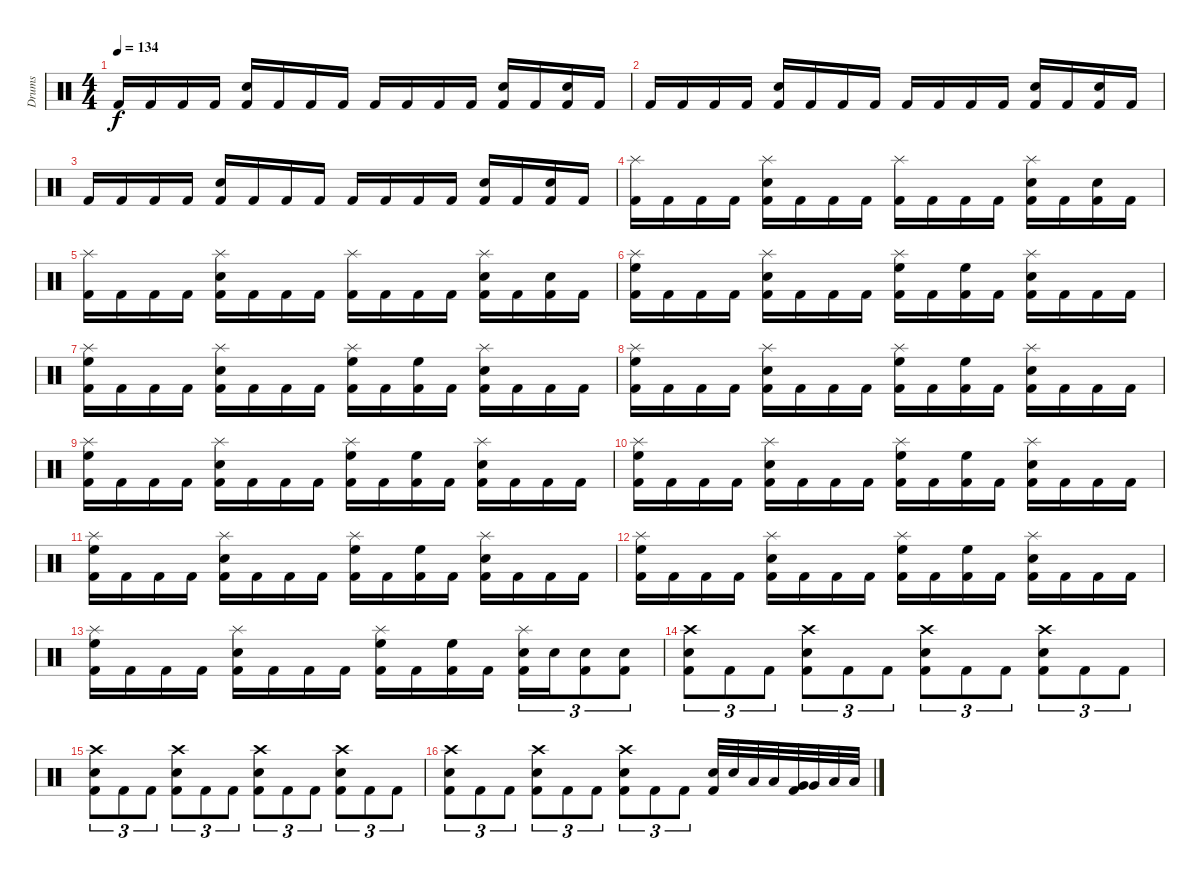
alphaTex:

\track ("Drums" "Drums") {instrument percussion}
\staff {score}
\articulation defaults
\ts (4 4)
\tempo 134
\clef neutral
\ks c "Kick (hit) 2".16{dy f} "Kick (hit) 2".16 "Kick (hit) 2".16 "Kick (hit) 2".16
("Kick (hit) 2" "Electric Snare (hit)").16 "Kick (hit) 2".16 "Kick (hit) 2".16 "Kick (hit) 2".16 "Kick (hit) 2".16 "Kick (hit) 2".16 "Kick (hit) 2".16 "Kick (hit) 2".16 ("Kick (hit) 2" "Electric Snare (hit)").16 "Kick (hit) 2".16 ("Kick (hit) 2" "Electric Snare (hit)").16 "Kick (hit) 2".16 |
"Kick (hit) 2".16 "Kick (hit) 2".16 "Kick (hit) 2".16 "Kick (hit) 2".16 ("Kick (hit) 2" "Electric Snare (hit)").16 "Kick (hit) 2".16 "Kick (hit) 2".16 "Kick (hit) 2".16 "Kick (hit) 2".16 "Kick (hit) 2".16 "Kick (hit) 2".16 "Kick (hit) 2".16 ("Kick (hit) 2" "Electric Snare (hit)").16 "Kick (hit) 2".16 ("Kick (hit) 2" "Electric Snare (hit)").16 "Kick (hit) 2".16 |
"Kick (hit) 2".16 "Kick (hit) 2".16 "Kick (hit) 2".16 "Kick (hit) 2".16 ("Kick (hit) 2" "Electric Snare (hit)").16 "Kick (hit) 2".16 "Kick (hit) 2".16 "Kick (hit) 2".16 "Kick (hit) 2".16 "Kick (hit) 2".16 "Kick (hit) 2".16 "Kick (hit) 2".16 ("Kick (hit) 2" "Electric Snare (hit)").16 "Kick (hit) 2".16 ("Kick (hit) 2" "Electric Snare (hit)").16 "Kick (hit) 2".16 |
("Kick (hit) 2" "Splash (hit)").16 "Kick (hit) 2".16 "Kick (hit) 2".16 "Kick (hit) 2".16 ("Kick (hit) 2" "Splash (hit)" "Electric Snare (hit)").16 "Kick (hit) 2".16 "Kick (hit) 2".16 "Kick (hit) 2".16 ("Kick (hit) 2" "Splash (hit)").16 "Kick (hit) 2".16 "Kick (hit) 2".16 "Kick (hit) 2".16 ("Kick (hit) 2" "Splash (hit)" "Electric Snare (hit)").16 "Kick (hit) 2".16 ("Kick (hit) 2" "Electric Snare (hit)").16 "Kick (hit) 2".16 |
("Kick (hit) 2" "Splash (hit)").16 "Kick (hit) 2".16 "Kick (hit) 2".16 "Kick (hit) 2".16 ("Kick (hit) 2" "Splash (hit)" "Electric Snare (hit)").16 "Kick (hit) 2".16 "Kick (hit) 2".16 "Kick (hit) 2".16 ("Kick (hit) 2" "Splash (hit)").16 "Kick (hit) 2".16 "Kick (hit) 2".16 "Kick (hit) 2".16 ("Kick (hit) 2" "Splash (hit)" "Electric Snare (hit)").16 "Kick (hit) 2".16 ("Kick (hit) 2" "Electric Snare (hit)").16 "Kick (hit) 2".16 |
("Kick (hit) 2" "Splash (hit)" "High Floor Tom (hit)").16 "Kick (hit) 2".16 "Kick (hit) 2".16 "Kick (hit) 2".16 ("Kick (hit) 2" "Splash (hit)" "Electric Snare (hit)").16 "Kick (hit) 2".16 "Kick (hit) 2".16 "Kick (hit) 2".16 ("Kick (hit) 2" "Splash (hit)" "High Floor Tom (hit)").16 "Kick (hit) 2".16 ("Kick (hit) 2" "High Floor Tom (hit)").16 "Kick (hit) 2".16 ("Kick (hit) 2" "Splash (hit)" "Electric Snare (hit)").16 "Kick (hit) 2".16 "Kick (hit) 2".16 "Kick (hit) 2".16 |
("Kick (hit) 2" "Splash (hit)" "High Floor Tom (hit)").16 "Kick (hit) 2".16 "Kick (hit) 2".16 "Kick (hit) 2".16 ("Kick (hit) 2" "Splash (hit)" "Electric Snare (hit)").16 "Kick (hit) 2".16 "Kick (hit) 2".16 "Kick (hit) 2".16 ("Kick (hit) 2" "Splash (hit)" "High Floor Tom (hit)").16 "Kick (hit) 2".16 ("Kick (hit) 2" "High Floor Tom (hit)").16 "Kick (hit) 2".16 ("Kick (hit) 2" "Splash (hit)" "Electric Snare (hit)").16 "Kick (hit) 2".16 "Kick (hit) 2".16 "Kick (hit) 2".16 |
("Kick (hit) 2" "Splash (hit)" "High Floor Tom (hit)").16 "Kick (hit) 2".16 "Kick (hit) 2".16 "Kick (hit) 2".16 ("Kick (hit) 2" "Splash (hit)" "Electric Snare (hit)").16 "Kick (hit) 2".16 "Kick (hit) 2".16 "Kick (hit) 2".16 ("Kick (hit) 2" "Splash (hit)" "High Floor Tom (hit)").16 "Kick (hit) 2".16 ("Kick (hit) 2" "High Floor Tom (hit)").16 "Kick (hit) 2".16 ("Kick (hit) 2" "Splash (hit)" "Electric Snare (hit)").16 "Kick (hit) 2".16 "Kick (hit) 2".16 "Kick (hit) 2".16 |
("Kick (hit) 2" "Splash (hit)" "High Floor Tom (hit)").16 "Kick (hit) 2".16 "Kick (hit) 2".16 "Kick (hit) 2".16 ("Kick (hit) 2" "Splash (hit)" "Electric Snare (hit)").16 "Kick (hit) 2".16 "Kick (hit) 2".16 "Kick (hit) 2".16 ("Kick (hit) 2" "Splash (hit)" "High Floor Tom (hit)").16 "Kick (hit) 2".16 ("Kick (hit) 2" "High Floor Tom (hit)").16 "Kick (hit) 2".16 ("Kick (hit) 2" "Splash (hit)" "Electric Snare (hit)").16 "Kick (hit) 2".16 "Kick (hit) 2".16 "Kick (hit) 2".16 |
("Kick (hit) 2" "Splash (hit)" "High Floor Tom (hit)").16 "Kick (hit) 2".16 "Kick (hit) 2".16 "Kick (hit) 2".16 ("Kick (hit) 2" "Splash (hit)" "Electric Snare (hit)").16 "Kick (hit) 2".16 "Kick (hit) 2".16 "Kick (hit) 2".16 ("Kick (hit) 2" "Splash (hit)" "High Floor Tom (hit)").16 "Kick (hit) 2".16 ("Kick (hit) 2" "High Floor Tom (hit)").16 "Kick (hit) 2".16 ("Kick (hit) 2" "Splash (hit)" "Electric Snare (hit)").16 "Kick (hit) 2".16 "Kick (hit) 2".16 "Kick (hit) 2".16 |
("Kick (hit) 2" "Splash (hit)" "High Floor Tom (hit)").16 "Kick (hit) 2".16 "Kick (hit) 2".16 "Kick (hit) 2".16 ("Kick (hit) 2" "Splash (hit)" "Electric Snare (hit)").16 "Kick (hit) 2".16 "Kick (hit) 2".16 "Kick (hit) 2".16 ("Kick (hit) 2" "Splash (hit)" "High Floor Tom (hit)").16 "Kick (hit) 2".16 ("Kick (hit) 2" "High Floor Tom (hit)").16 "Kick (hit) 2".16 ("Kick (hit) 2" "Splash (hit)" "Electric Snare (hit)").16 "Kick (hit) 2".16 "Kick (hit) 2".16 "Kick (hit) 2".16 |
("Kick (hit) 2" "Splash (hit)" "High Floor Tom (hit)").16 "Kick (hit) 2".16 "Kick (hit) 2".16 "Kick (hit) 2".16 ("Kick (hit) 2" "Splash (hit)" "Electric Snare (hit)").16 "Kick (hit) 2".16 "Kick (hit) 2".16 "Kick (hit) 2".16 ("Kick (hit) 2" "Splash (hit)" "High Floor Tom (hit)").16 "Kick (hit) 2".16 ("Kick (hit) 2" "High Floor Tom (hit)").16 "Kick (hit) 2".16 ("Kick (hit) 2" "Splash (hit)" "Electric Snare (hit)").16 "Kick (hit) 2".16 "Kick (hit) 2".16 "Kick (hit) 2".16 |
("Kick (hit) 2" "Splash (hit)" "High Floor Tom (hit)").16 "Kick (hit) 2".16 "Kick (hit) 2".16 "Kick (hit) 2".16 ("Kick (hit) 2" "Splash (hit)" "Electric Snare (hit)").16 "Kick (hit) 2".16 "Kick (hit) 2".16 "Kick (hit) 2".16 ("Kick (hit) 2" "Splash (hit)" "High Floor Tom (hit)").16 "Kick (hit) 2".16 ("Kick (hit) 2" "High Floor Tom (hit)").16 "Kick (hit) 2".16 ("Kick (hit) 2" "Splash (hit)" "Electric Snare (hit)").16{tu (3 2)} "Electric Snare (hit)".16{tu (3 2)} ("Kick (hit) 2" "Electric Snare (hit)").8{tu (3 2)} ("Kick (hit) 2" "Electric Snare (hit)").8{tu (3 2)} |
("Kick (hit) 2" "Crash high (hit)" "Electric Snare (hit)").8{tu (3 2)} "Kick (hit) 2".8{tu (3 2)} "Kick (hit) 2".8{tu (3 2)} ("Kick (hit) 2" "Crash high (hit)" "Electric Snare (hit)").8{tu (3 2)} "Kick (hit) 2".8{tu (3 2)} "Kick (hit) 2".8{tu (3 2)} ("Kick (hit) 2" "Crash high (hit)" "Electric Snare (hit)").8{tu (3 2)} "Kick (hit) 2".8{tu (3 2)} "Kick (hit) 2".8{tu (3 2)} ("Kick (hit) 2" "Crash high (hit)" "Electric Snare (hit)").8{tu (3 2)} "Kick (hit) 2".8{tu (3 2)} "Kick (hit) 2".8{tu (3 2)} |
("Kick (hit) 2" "Crash high (hit)" "Electric Snare (hit)").8{tu (3 2)} "Kick (hit) 2".8{tu (3 2)} "Kick (hit) 2".8{tu (3 2)} ("Kick (hit) 2" "Crash high (hit)" "Electric Snare (hit)").8{tu (3 2)} "Kick (hit) 2".8{tu (3 2)} "Kick (hit) 2".8{tu (3 2)} ("Kick (hit) 2" "Crash high (hit)" "Electric Snare (hit)").8{tu (3 2)} "Kick (hit) 2".8{tu (3 2)} "Kick (hit) 2".8{tu (3 2)} ("Kick (hit) 2" "Crash high (hit)" "Electric Snare (hit)").8{tu (3 2)} "Kick (hit) 2".8{tu (3 2)} "Kick (hit) 2".8{tu (3 2)} |
("Kick (hit) 2" "Crash high (hit)" "Electric Snare (hit)").8{tu (3 2)} "Kick (hit) 2".8{tu (3 2)} "Kick (hit) 2".8{tu (3 2)} ("Kick (hit) 2" "Crash high (hit)" "Electric Snare (hit)").8{tu (3 2)} "Kick (hit) 2".8{tu (3 2)} "Kick (hit) 2".8{tu (3 2)} ("Kick (hit) 2" "Crash high (hit)" "Electric Snare (hit)").8{tu (3 2)} "Kick (hit) 2".8{tu (3 2)} "Kick (hit) 2".8{tu (3 2)} ("Kick (hit) 2" "Electric Snare (hit)").32 "Electric Snare (hit)".32 "Low Tom (hit)".32 "Low Tom (hit)".32 ("Kick (hit) 2" "Very Low Tom (hit)").32 "Very Low Tom (hit)".32 "Low Floor Tom (hit)".32 "Low Floor Tom (hit)".32
